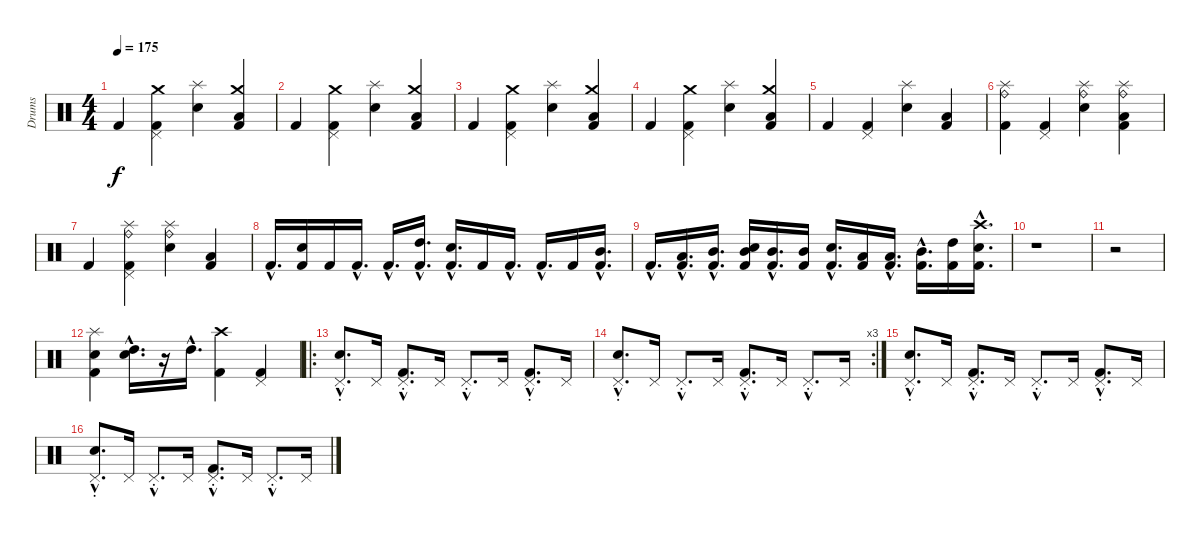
\track ("Drums" "Drums") {instrument percussion}
\staff {score}
\articulation defaults
\ts (4 4)
\tempo 175
\clef neutral
\ks c "Kick (hit) 2".4{dy f}
("Kick (hit) 2" "Pedal Hi-Hat (hit)" "Crash medium (hit)").4 ("Electric Snare (hit)" "Splash (hit)").4 ("Kick (hit) 2" "Low Tom (hit)" "Crash medium (hit)").4 |
"Kick (hit) 2".4 ("Kick (hit) 2" "Pedal Hi-Hat (hit)" "Crash medium (hit)").4 ("Electric Snare (hit)" "Splash (hit)").4 ("Kick (hit) 2" "Low Tom (hit)" "Crash medium (hit)").4 |
"Kick (hit) 2".4 ("Kick (hit) 2" "Pedal Hi-Hat (hit)" "Crash medium (hit)").4 ("Electric Snare (hit)" "Splash (hit)").4 ("Kick (hit) 2" "Low Tom (hit)" "Crash medium (hit)").4 |
"Kick (hit) 2".4 ("Kick (hit) 2" "Pedal Hi-Hat (hit)" "Crash medium (hit)").4 ("Electric Snare (hit)" "Splash (hit)").4 ("Kick (hit) 2" "Low Tom (hit)" "Crash medium (hit)").4 |
"Kick (hit) 2".4 ("Kick (hit) 2" "Pedal Hi-Hat (hit)").4 ("Electric Snare (hit)" "Splash (hit)").4 ("Kick (hit) 2" "Low Tom (hit)").4 |
("Kick (hit) 2" "Ride (bell)" "Splash (hit)").4 ("Kick (hit) 2" "Pedal Hi-Hat (hit)").4 ("Electric Snare (hit)" "Ride (bell)" "Splash (hit)").4 ("Kick (hit) 2" "Low Tom (hit)" "Ride (bell)" "Splash (hit)").4 |
"Kick (hit) 2".4 ("Kick (hit) 2" "Pedal Hi-Hat (hit)" "Ride (bell)" "Splash (hit)").4 ("Electric Snare (hit)" "Ride (bell)" "Splash (hit)").4 ("Kick (hit) 2" "Low Tom (hit)").4 |
"Kick (hit) 2"{hac}.16{d} ("Kick (hit) 2" "Snare (hit) 2").16 "Kick (hit) 2".16 "Kick (hit) 2"{hac}.16{d} "Kick (hit) 2"{hac}.16{d} ("Kick (hit) 2"{hac} "High Tom (hit)"{hac}).16{d} ("Kick (hit) 2"{hac} "Electric Snare (hit)"{hac}).16{d} "Kick (hit) 2".16 "Kick (hit) 2"{hac}.16{d} "Kick (hit) 2"{hac}.16{d} "Kick (hit) 2".16 ("Kick (hit) 2"{hac} "Mid Tom (hit)"{hac}).16{d} |
"Kick (hit) 2"{hac}.16{d} ("Kick (hit) 2"{hac} "Low Tom (hit)"{hac}).16{d} ("Kick (hit) 2"{hac} "Mid Tom (hit)"{hac}).16{d} ("Kick (hit) 2" "Mid Tom (hit)" "Electric Snare (hit)").16 ("Kick (hit) 2"{hac} "Mid Tom (hit)"{hac}).16{d} ("Kick (hit) 2" "Mid Tom (hit)").16 ("Kick (hit) 2"{hac} "Snare (hit) 2"{hac}).16{d} ("Kick (hit) 2" "Low Tom (hit)").16 ("Kick (hit) 2"{hac} "Low Tom (hit)"{hac}).16{d} ("Kick (hit) 2"{hac} "Mid Tom (hit)"{hac}).16{d} ("Kick (hit) 2" "High Tom (hit)").16 ("Kick (hit) 2"{hac} "Crash high (hit)"{hac} "Electric Snare (hit)"{hac}).16{d} |
r.1 |
r.2 |
("Electric Snare (hit)" "Splash (hit)" "Kick (hit) 2").4 ("High Tom (hit)"{hac} "Electric Snare (hit)"{hac}).16{d} r.16 "High Tom (hit)"{hac}.16{d} ("Kick (hit) 2" "Crash high (hit)").4 ("Kick (hit) 2" "Pedal Hi-Hat (hit)").4 |
\ro
("Electric Snare (hit)"{hac} "Pedal Hi-Hat (hit)"{hac st}).8{d} "Pedal Hi-Hat (hit)".16 ("Pedal Hi-Hat (hit)"{hac st} "Kick (hit) 2"{hac}).8{d} "Pedal Hi-Hat (hit)".16 "Pedal Hi-Hat (hit)"{hac st}.8{d} "Pedal Hi-Hat (hit)".16 ("Kick (hit) 2"{hac} "Pedal Hi-Hat (hit)"{hac st}).8{d} "Pedal Hi-Hat (hit)".16 |
\rc 3
("Electric Snare (hit)"{hac} "Pedal Hi-Hat (hit)"{hac st}).8{d} "Pedal Hi-Hat (hit)".16 "Pedal Hi-Hat (hit)"{hac st}.8{d} "Pedal Hi-Hat (hit)".16 ("Pedal Hi-Hat (hit)"{hac st} "Kick (hit) 2"{hac}).8{d} "Pedal Hi-Hat (hit)".16 "Pedal Hi-Hat (hit)"{hac st}.8{d} "Pedal Hi-Hat (hit)".16 |
("Electric Snare (hit)"{hac} "Pedal Hi-Hat (hit)"{hac st}).8{d} "Pedal Hi-Hat (hit)".16 ("Pedal Hi-Hat (hit)"{hac st} "Kick (hit) 2"{hac}).8{d} "Pedal Hi-Hat (hit)".16 "Pedal Hi-Hat (hit)"{hac st}.8{d} "Pedal Hi-Hat (hit)".16 ("Kick (hit) 2"{hac} "Pedal Hi-Hat (hit)"{hac st}).8{d} "Pedal Hi-Hat (hit)".16 |
("Electric Snare (hit)"{hac} "Pedal Hi-Hat (hit)"{hac st}).8{d} "Pedal Hi-Hat (hit)".16 "Pedal Hi-Hat (hit)"{hac st}.8{d} "Pedal Hi-Hat (hit)".16 ("Pedal Hi-Hat (hit)"{hac st} "Kick (hit) 2"{hac}).8{d} "Pedal Hi-Hat (hit)".16 "Pedal Hi-Hat (hit)"{hac st}.8{d} "Pedal Hi-Hat (hit)".16
